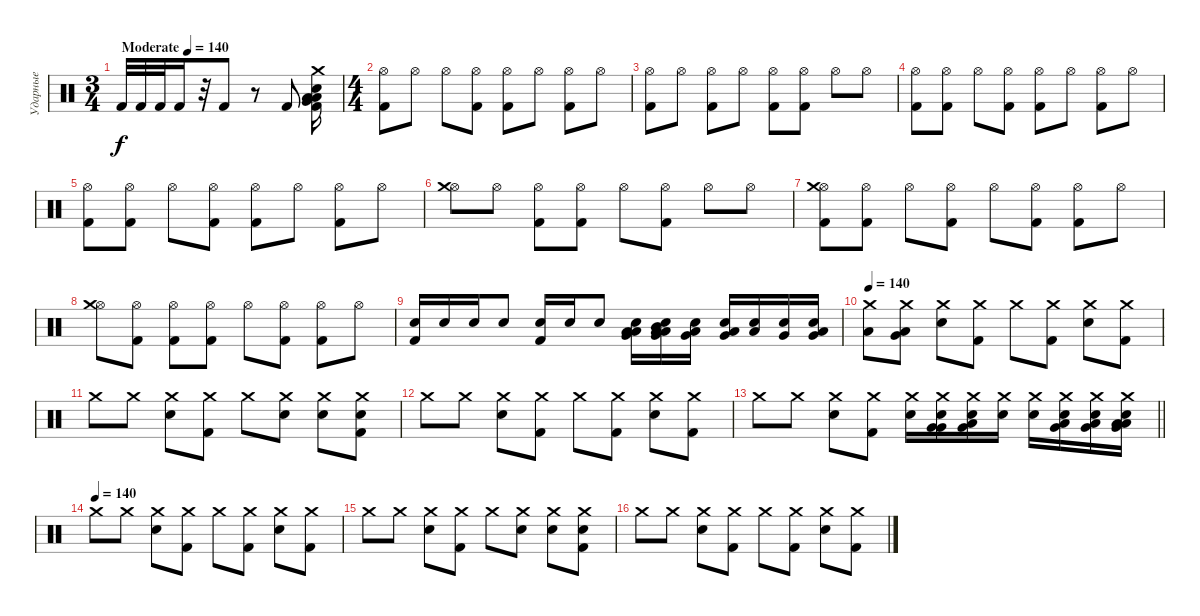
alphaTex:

\track ("Ударные" "Ударные") {instrument percussion}
\staff {score}
\articulation defaults
\ts (3 4)
\tempo (140 "Moderate")
\tempo 120
\tempo (140 "Moderate")
\clef neutral
\ks c "Kick (hit) 2".32{dy f} "Kick (hit) 2".32 "Kick (hit) 2".32 "Kick (hit) 2".16
r.32 "Kick (hit) 2".8 r.8 "Kick (hit) 2".8 ("Snare (hit) 2" "Kick (hit) 2" "Low Floor Tom (hit)" "Very Low Tom (hit)" "Low Tom (hit)" "Crash medium (hit)").16 |
\ts (4 4)
("Hi-Hat (open)" "Kick (hit) 2").8 "Hi-Hat (open)".8 "Hi-Hat (open)".8 ("Hi-Hat (open)" "Kick (hit) 2").8 ("Hi-Hat (open)" "Kick (hit) 2").8 "Hi-Hat (open)".8 ("Hi-Hat (open)" "Kick (hit) 2").8 "Hi-Hat (open)".8 |
("Hi-Hat (open)" "Kick (hit) 2").8 "Hi-Hat (open)".8 ("Hi-Hat (open)" "Kick (hit) 2").8 "Hi-Hat (open)".8 ("Hi-Hat (open)" "Kick (hit) 2").8 ("Hi-Hat (open)" "Kick (hit) 2").8 "Hi-Hat (open)".8 "Hi-Hat (open)".8 |
("Hi-Hat (open)" "Kick (hit) 2").8 ("Hi-Hat (open)" "Kick (hit) 2").8 "Hi-Hat (open)".8 ("Hi-Hat (open)" "Kick (hit) 2").8 ("Hi-Hat (open)" "Kick (hit) 2").8 "Hi-Hat (open)".8 ("Hi-Hat (open)" "Kick (hit) 2").8 "Hi-Hat (open)".8 |
("Hi-Hat (open)" "Kick (hit) 2").8 ("Hi-Hat (open)" "Kick (hit) 2").8 "Hi-Hat (open)".8 ("Hi-Hat (open)" "Kick (hit) 2").8 ("Hi-Hat (open)" "Kick (hit) 2").8 "Hi-Hat (open)".8 ("Hi-Hat (open)" "Kick (hit) 2").8 "Hi-Hat (open)".8 |
("Hi-Hat (open)" "Crash medium (hit)").8 "Hi-Hat (open)".8 ("Hi-Hat (open)" "Kick (hit) 2").8 ("Hi-Hat (open)" "Kick (hit) 2").8 "Hi-Hat (open)".8 ("Hi-Hat (open)" "Kick (hit) 2").8 "Hi-Hat (open)".8 "Hi-Hat (open)".8 |
("Hi-Hat (open)" "Kick (hit) 2" "Crash medium (hit)").8 ("Hi-Hat (open)" "Kick (hit) 2").8 "Hi-Hat (open)".8 ("Hi-Hat (open)" "Kick (hit) 2").8 "Hi-Hat (open)".8 ("Hi-Hat (open)" "Kick (hit) 2").8 ("Hi-Hat (open)" "Kick (hit) 2").8 "Hi-Hat (open)".8 |
("Hi-Hat (open)" "Crash medium (hit)").8 ("Hi-Hat (open)" "Kick (hit) 2").8 ("Hi-Hat (open)" "Kick (hit) 2").8 ("Hi-Hat (open)" "Kick (hit) 2").8 "Hi-Hat (open)".8 ("Hi-Hat (open)" "Kick (hit) 2").8 ("Hi-Hat (open)" "Kick (hit) 2").8 "Hi-Hat (open)".8 |
("Snare (hit) 2" "Kick (hit) 2").16 "Snare (hit) 2".16 "Snare (hit) 2".16 "Snare (hit) 2".8 ("Snare (hit) 2" "Kick (hit) 2").16 "Snare (hit) 2".16 "Snare (hit) 2".8 ("Snare (hit) 2" "Low Floor Tom (hit)" "Very Low Tom (hit)" "Low Tom (hit)").16 ("Snare (hit) 2" "Low Floor Tom (hit)" "Low Tom (hit)" "Mid Tom (hit)" "Very Low Tom (hit)").16 ("Snare (hit) 2" "Very Low Tom (hit)" "Low Tom (hit)").16 ("Snare (hit) 2" "Very Low Tom (hit)" "Low Tom (hit)").16 ("Snare (hit) 2" "Low Floor Tom (hit)").16 ("Snare (hit) 2" "Very Low Tom (hit)").16 ("Snare (hit) 2" "Low Floor Tom (hit)" "Very Low Tom (hit)").16 |
\tempo 140
("Crash medium (hit)" "Low Tom (hit)").8 ("Crash medium (hit)" "Very Low Tom (hit)" "Low Floor Tom (hit)").8 ("Crash medium (hit)" "Snare (hit) 2").8 ("Crash medium (hit)" "Kick (hit) 2").8 "Crash medium (hit)".8 ("Crash medium (hit)" "Kick (hit) 2").8 ("Crash medium (hit)" "Snare (hit) 2").8 ("Crash medium (hit)" "Kick (hit) 2").8 |
"Crash medium (hit)".8 "Crash medium (hit)".8 ("Crash medium (hit)" "Snare (hit) 2").8 ("Crash medium (hit)" "Kick (hit) 2").8 "Crash medium (hit)".8 ("Crash medium (hit)" "Snare (hit) 2").8 ("Crash medium (hit)" "Snare (hit) 2").8 ("Crash medium (hit)" "Kick (hit) 2" "Snare (hit) 2").8 |
"Crash medium (hit)".8 "Crash medium (hit)".8 ("Crash medium (hit)" "Snare (hit) 2").8 ("Crash medium (hit)" "Kick (hit) 2").8 "Crash medium (hit)".8 ("Crash medium (hit)" "Kick (hit) 2").8 ("Crash medium (hit)" "Snare (hit) 2").8 ("Crash medium (hit)" "Kick (hit) 2").8 |
\barLineRight lightlight "Crash medium (hit)".8 "Crash medium (hit)".8
("Crash medium (hit)" "Snare (hit) 2").8 ("Crash medium (hit)" "Kick (hit) 2").8 ("Crash medium (hit)" "Snare (hit) 2").16 ("Crash medium (hit)" "Snare (hit) 2" "Very Low Tom (hit)" "Very Low Tom (hit)").16 ("Crash medium (hit)" "Snare (hit) 2" "Very Low Tom (hit)" "Low Tom (hit)").16 ("Crash medium (hit)" "Snare (hit) 2").16 ("Crash medium (hit)" "Snare (hit) 2").16 ("Crash medium (hit)" "Snare (hit) 2" "Very Low Tom (hit)" "Low Tom (hit)").16 ("Crash medium (hit)" "Snare (hit) 2" "Very Low Tom (hit)" "Low Tom (hit)").16 ("Crash medium (hit)" "Snare (hit) 2" "Very Low Tom (hit)" "Low Tom (hit)" "Low Floor Tom (hit)").16 |
\tempo (140)
"Crash medium (hit)".8 "Crash medium (hit)".8 ("Crash medium (hit)" "Snare (hit) 2").8 ("Crash medium (hit)" "Kick (hit) 2").8 "Crash medium (hit)".8 ("Crash medium (hit)" "Kick (hit) 2").8 ("Crash medium (hit)" "Snare (hit) 2").8 ("Crash medium (hit)" "Kick (hit) 2").8 |
"Crash medium (hit)".8 "Crash medium (hit)".8 ("Crash medium (hit)" "Snare (hit) 2").8 ("Crash medium (hit)" "Kick (hit) 2").8 "Crash medium (hit)".8 ("Crash medium (hit)" "Snare (hit) 2").8 ("Crash medium (hit)" "Snare (hit) 2").8 ("Crash medium (hit)" "Kick (hit) 2" "Snare (hit) 2").8 |
"Crash medium (hit)".8 "Crash medium (hit)".8 ("Crash medium (hit)" "Snare (hit) 2").8 ("Crash medium (hit)" "Kick (hit) 2").8 "Crash medium (hit)".8 ("Crash medium (hit)" "Kick (hit) 2").8 ("Crash medium (hit)" "Snare (hit) 2").8 ("Crash medium (hit)" "Kick (hit) 2").8
